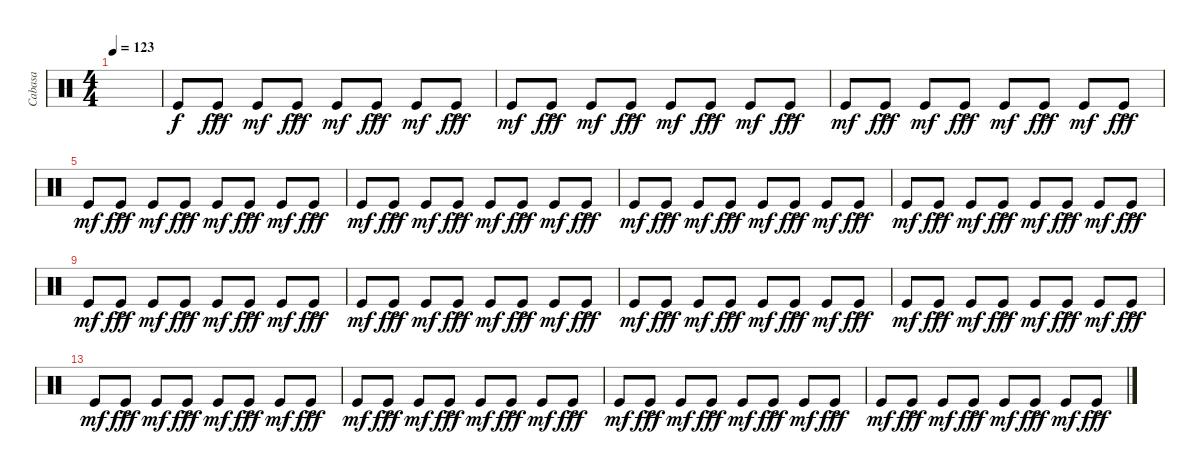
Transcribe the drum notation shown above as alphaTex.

\defaultSystemsLayout 4
\bracketExtendMode groupsimilarinstruments
\multiTrackTrackNamePolicy hidden
\firstSystemTrackNameMode fullname
\otherSystemsTrackNameMode fullname
\otherSystemsTrackNameOrientation horizontal
\defaultBarNumberDisplay FirstOfSystem
\track ("Cabasa" "Cabasa") {instrument percussion}
\staff {score}
\articulation defaults
\ts (4 4)
\ac
\tempo 123
\clef neutral
\ks c
|
"Kick (hit)".8 "Kick (hit)"{ac}.8{dy fff} "Kick (hit)".8{dy mf} "Kick (hit)"{ac}.8{dy fff} "Kick (hit)".8{dy mf} "Kick (hit)"{ac}.8{dy fff} "Kick (hit)".8{dy mf} "Kick (hit)"{ac}.8{dy fff} |
"Kick (hit)".8{dy mf} "Kick (hit)"{ac}.8{dy fff} "Kick (hit)".8{dy mf} "Kick (hit)"{ac}.8{dy fff} "Kick (hit)".8{dy mf} "Kick (hit)"{ac}.8{dy fff} "Kick (hit)".8{dy mf} "Kick (hit)"{ac}.8{dy fff} |
"Kick (hit)".8{dy mf} "Kick (hit)"{ac}.8{dy fff} "Kick (hit)".8{dy mf} "Kick (hit)"{ac}.8{dy fff} "Kick (hit)".8{dy mf} "Kick (hit)"{ac}.8{dy fff} "Kick (hit)".8{dy mf} "Kick (hit)"{ac}.8{dy fff} |
"Kick (hit)".8{dy mf} "Kick (hit)"{ac}.8{dy fff} "Kick (hit)".8{dy mf} "Kick (hit)"{ac}.8{dy fff} "Kick (hit)".8{dy mf} "Kick (hit)"{ac}.8{dy fff} "Kick (hit)".8{dy mf} "Kick (hit)"{ac}.8{dy fff} |
"Kick (hit)".8{dy mf} "Kick (hit)"{ac}.8{dy fff} "Kick (hit)".8{dy mf} "Kick (hit)"{ac}.8{dy fff} "Kick (hit)".8{dy mf} "Kick (hit)"{ac}.8{dy fff} "Kick (hit)".8{dy mf} "Kick (hit)"{ac}.8{dy fff} |
"Kick (hit)".8{dy mf} "Kick (hit)"{ac}.8{dy fff} "Kick (hit)".8{dy mf} "Kick (hit)"{ac}.8{dy fff} "Kick (hit)".8{dy mf} "Kick (hit)"{ac}.8{dy fff} "Kick (hit)".8{dy mf} "Kick (hit)"{ac}.8{dy fff} |
"Kick (hit)".8{dy mf} "Kick (hit)"{ac}.8{dy fff} "Kick (hit)".8{dy mf} "Kick (hit)"{ac}.8{dy fff} "Kick (hit)".8{dy mf} "Kick (hit)"{ac}.8{dy fff} "Kick (hit)".8{dy mf} "Kick (hit)"{ac}.8{dy fff} |
"Kick (hit)".8{dy mf} "Kick (hit)"{ac}.8{dy fff} "Kick (hit)".8{dy mf} "Kick (hit)"{ac}.8{dy fff} "Kick (hit)".8{dy mf} "Kick (hit)"{ac}.8{dy fff} "Kick (hit)".8{dy mf} "Kick (hit)"{ac}.8{dy fff} |
"Kick (hit)".8{dy mf} "Kick (hit)"{ac}.8{dy fff} "Kick (hit)".8{dy mf} "Kick (hit)"{ac}.8{dy fff} "Kick (hit)".8{dy mf} "Kick (hit)"{ac}.8{dy fff} "Kick (hit)".8{dy mf} "Kick (hit)"{ac}.8{dy fff} |
"Kick (hit)".8{dy mf} "Kick (hit)"{ac}.8{dy fff} "Kick (hit)".8{dy mf} "Kick (hit)"{ac}.8{dy fff} "Kick (hit)".8{dy mf} "Kick (hit)"{ac}.8{dy fff} "Kick (hit)".8{dy mf} "Kick (hit)"{ac}.8{dy fff} |
"Kick (hit)".8{dy mf} "Kick (hit)"{ac}.8{dy fff} "Kick (hit)".8{dy mf} "Kick (hit)"{ac}.8{dy fff} "Kick (hit)".8{dy mf} "Kick (hit)"{ac}.8{dy fff} "Kick (hit)".8{dy mf} "Kick (hit)"{ac}.8{dy fff} |
"Kick (hit)".8{dy mf} "Kick (hit)"{ac}.8{dy fff} "Kick (hit)".8{dy mf} "Kick (hit)"{ac}.8{dy fff} "Kick (hit)".8{dy mf} "Kick (hit)"{ac}.8{dy fff} "Kick (hit)".8{dy mf} "Kick (hit)"{ac}.8{dy fff} |
"Kick (hit)".8{dy mf} "Kick (hit)"{ac}.8{dy fff} "Kick (hit)".8{dy mf} "Kick (hit)"{ac}.8{dy fff} "Kick (hit)".8{dy mf} "Kick (hit)"{ac}.8{dy fff} "Kick (hit)".8{dy mf} "Kick (hit)"{ac}.8{dy fff} |
"Kick (hit)".8{dy mf} "Kick (hit)"{ac}.8{dy fff} "Kick (hit)".8{dy mf} "Kick (hit)"{ac}.8{dy fff} "Kick (hit)".8{dy mf} "Kick (hit)"{ac}.8{dy fff} "Kick (hit)".8{dy mf} "Kick (hit)"{ac}.8{dy fff} |
"Kick (hit)".8{dy mf} "Kick (hit)"{ac}.8{dy fff} "Kick (hit)".8{dy mf} "Kick (hit)"{ac}.8{dy fff} "Kick (hit)".8{dy mf} "Kick (hit)"{ac}.8{dy fff} "Kick (hit)".8{dy mf} "Kick (hit)"{ac}.8{dy fff}
